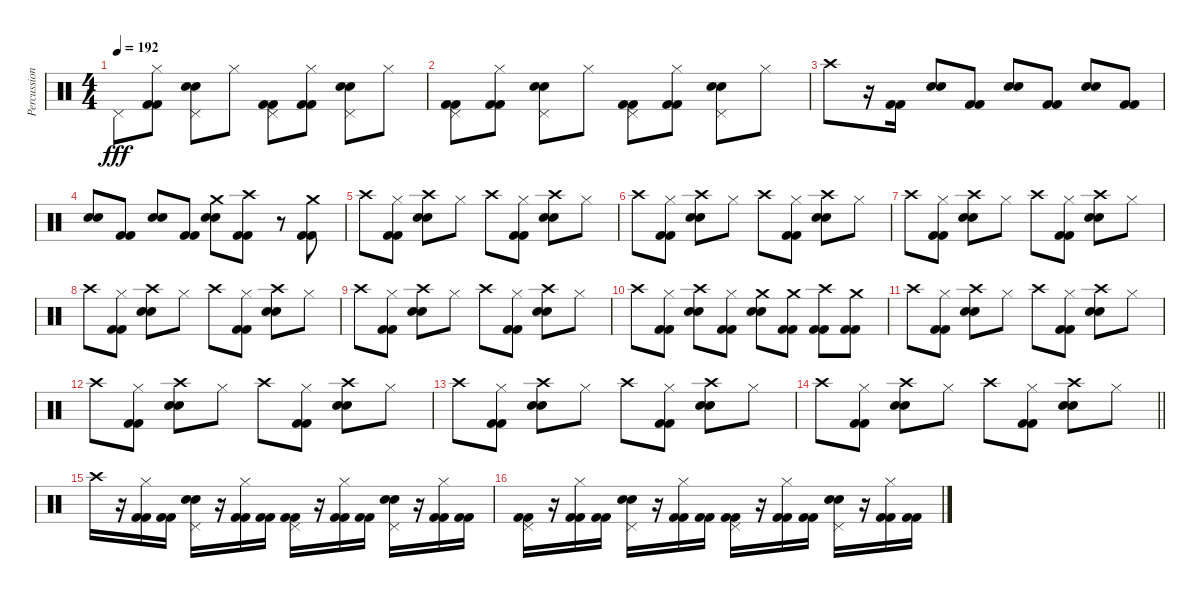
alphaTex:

\track ("Percussion" "Percussion") {instrument percussion}
\staff {score}
\articulation defaults
\ts (4 4)
\tempo 192
\clef neutral
\ks c "Pedal Hi-Hat (hit)".8{dy fff}
("Hi-Hat (closed)" "Kick (hit) 2" "Kick (hit) 2").8 ("Pedal Hi-Hat (hit)" "Snare (hit) 2" "Electric Snare (hit)").8 "Hi-Hat (closed)".8 ("Pedal Hi-Hat (hit)" "Kick (hit) 2" "Kick (hit) 2").8 ("Hi-Hat (closed)" "Kick (hit) 2" "Kick (hit) 2").8 ("Pedal Hi-Hat (hit)" "Snare (hit) 2" "Electric Snare (hit)").8 "Hi-Hat (closed)".8 |
("Pedal Hi-Hat (hit)" "Kick (hit) 2" "Kick (hit) 2").8 ("Hi-Hat (closed)" "Kick (hit) 2" "Kick (hit) 2").8 ("Pedal Hi-Hat (hit)" "Snare (hit) 2" "Electric Snare (hit)").8 "Hi-Hat (closed)".8 ("Pedal Hi-Hat (hit)" "Kick (hit) 2" "Kick (hit) 2").8 ("Hi-Hat (closed)" "Kick (hit) 2" "Kick (hit) 2").8 ("Pedal Hi-Hat (hit)" "Snare (hit) 2" "Electric Snare (hit)").8 "Hi-Hat (closed)".8 |
"Crash high (hit)".8 r.16 ("Kick (hit) 2" "Kick (hit) 2").16 ("Snare (hit) 2" "Electric Snare (hit)").8 ("Kick (hit) 2" "Kick (hit) 2").8 ("Snare (hit) 2" "Electric Snare (hit)").8 ("Kick (hit) 2" "Kick (hit) 2").8 ("Snare (hit) 2" "Electric Snare (hit)").8 ("Kick (hit) 2" "Kick (hit) 2").8 |
("Snare (hit) 2" "Electric Snare (hit)").8 ("Kick (hit) 2" "Kick (hit) 2").8 ("Snare (hit) 2" "Electric Snare (hit)").8 ("Kick (hit) 2" "Kick (hit) 2").8 ("Crash medium (hit)" "Snare (hit) 2" "Electric Snare (hit)").8 ("Crash high (hit)" "Kick (hit) 2" "Kick (hit) 2").8 r.8 ("Crash medium (hit)" "Kick (hit) 2" "Kick (hit) 2").8 |
"Crash high (hit)".8 ("Hi-Hat (closed)" "Kick (hit) 2" "Kick (hit) 2").8 ("Crash high (hit)" "Snare (hit) 2" "Electric Snare (hit)").8 "Hi-Hat (closed)".8 "Crash high (hit)".8 ("Hi-Hat (closed)" "Kick (hit) 2" "Kick (hit) 2").8 ("Crash high (hit)" "Snare (hit) 2" "Electric Snare (hit)").8 "Hi-Hat (closed)".8 |
"Crash high (hit)".8 ("Hi-Hat (closed)" "Kick (hit) 2" "Kick (hit) 2").8 ("Crash high (hit)" "Snare (hit) 2" "Electric Snare (hit)").8 "Hi-Hat (closed)".8 "Crash high (hit)".8 ("Hi-Hat (closed)" "Kick (hit) 2" "Kick (hit) 2").8 ("Crash high (hit)" "Snare (hit) 2" "Electric Snare (hit)").8 "Hi-Hat (closed)".8 |
"Crash high (hit)".8 ("Hi-Hat (closed)" "Kick (hit) 2" "Kick (hit) 2").8 ("Crash high (hit)" "Snare (hit) 2" "Electric Snare (hit)").8 "Hi-Hat (closed)".8 "Crash high (hit)".8 ("Hi-Hat (closed)" "Kick (hit) 2" "Kick (hit) 2").8 ("Crash high (hit)" "Snare (hit) 2" "Electric Snare (hit)").8 "Hi-Hat (closed)".8 |
"Crash high (hit)".8 ("Hi-Hat (closed)" "Kick (hit) 2" "Kick (hit) 2").8 ("Crash high (hit)" "Snare (hit) 2" "Electric Snare (hit)").8 "Hi-Hat (closed)".8 "Crash high (hit)".8 ("Hi-Hat (closed)" "Kick (hit) 2" "Kick (hit) 2").8 ("Crash high (hit)" "Snare (hit) 2" "Electric Snare (hit)").8 "Hi-Hat (closed)".8 |
"Crash high (hit)".8 ("Hi-Hat (closed)" "Kick (hit) 2" "Kick (hit) 2").8 ("Crash high (hit)" "Snare (hit) 2" "Electric Snare (hit)").8 "Hi-Hat (closed)".8 "Crash high (hit)".8 ("Hi-Hat (closed)" "Kick (hit) 2" "Kick (hit) 2").8 ("Crash high (hit)" "Snare (hit) 2" "Electric Snare (hit)").8 "Hi-Hat (closed)".8 |
"Crash high (hit)".8 ("Hi-Hat (closed)" "Kick (hit) 2" "Kick (hit) 2").8 ("Crash high (hit)" "Snare (hit) 2" "Electric Snare (hit)").8 ("Hi-Hat (closed)" "Kick (hit) 2" "Kick (hit) 2").8 ("Crash medium (hit)" "Snare (hit) 2" "Electric Snare (hit)").8 ("Crash medium (hit)" "Kick (hit) 2" "Kick (hit) 2").8 ("Crash high (hit)" "Kick (hit) 2" "Kick (hit) 2").8 ("Crash medium (hit)" "Kick (hit) 2" "Kick (hit) 2").8 |
"Crash high (hit)".8 ("Hi-Hat (closed)" "Kick (hit) 2" "Kick (hit) 2").8 ("Crash high (hit)" "Snare (hit) 2" "Electric Snare (hit)").8 "Hi-Hat (closed)".8 "Crash high (hit)".8 ("Hi-Hat (closed)" "Kick (hit) 2" "Kick (hit) 2").8 ("Crash high (hit)" "Snare (hit) 2" "Electric Snare (hit)").8 "Hi-Hat (closed)".8 |
"Crash high (hit)".8 ("Hi-Hat (closed)" "Kick (hit) 2" "Kick (hit) 2").8 ("Crash high (hit)" "Snare (hit) 2" "Electric Snare (hit)").8 "Hi-Hat (closed)".8 "Crash high (hit)".8 ("Hi-Hat (closed)" "Kick (hit) 2" "Kick (hit) 2").8 ("Crash high (hit)" "Snare (hit) 2" "Electric Snare (hit)").8 "Hi-Hat (closed)".8 |
"Crash high (hit)".8 ("Hi-Hat (closed)" "Kick (hit) 2" "Kick (hit) 2").8 ("Crash high (hit)" "Snare (hit) 2" "Electric Snare (hit)").8 "Hi-Hat (closed)".8 "Crash high (hit)".8 ("Hi-Hat (closed)" "Kick (hit) 2" "Kick (hit) 2").8 ("Crash high (hit)" "Snare (hit) 2" "Electric Snare (hit)").8 "Hi-Hat (closed)".8 |
\barLineRight lightlight "Crash high (hit)".8
("Hi-Hat (closed)" "Kick (hit) 2" "Kick (hit) 2").8 ("Crash high (hit)" "Snare (hit) 2" "Electric Snare (hit)").8 "Hi-Hat (closed)".8 "Crash high (hit)".8 ("Hi-Hat (closed)" "Kick (hit) 2" "Kick (hit) 2").8 ("Crash high (hit)" "Snare (hit) 2" "Electric Snare (hit)").8 "Hi-Hat (closed)".8 |
"Crash high (hit)".16 r.16 ("Hi-Hat (closed)" "Kick (hit) 2" "Kick (hit) 2").16 ("Kick (hit) 2" "Kick (hit) 2").16 ("Pedal Hi-Hat (hit)" "Snare (hit) 2" "Electric Snare (hit)").16 r.16 ("Hi-Hat (closed)" "Kick (hit) 2" "Kick (hit) 2").16 ("Kick (hit) 2" "Kick (hit) 2").16 ("Pedal Hi-Hat (hit)" "Kick (hit) 2" "Kick (hit) 2").16 r.16 ("Hi-Hat (closed)" "Kick (hit) 2" "Kick (hit) 2").16 ("Kick (hit) 2" "Kick (hit) 2").16 ("Pedal Hi-Hat (hit)" "Snare (hit) 2" "Electric Snare (hit)").16 r.16 ("Hi-Hat (closed)" "Kick (hit) 2" "Kick (hit) 2").16 ("Kick (hit) 2" "Kick (hit) 2").16 |
("Pedal Hi-Hat (hit)" "Kick (hit) 2" "Kick (hit) 2").16 r.16 ("Hi-Hat (closed)" "Kick (hit) 2" "Kick (hit) 2").16 ("Kick (hit) 2" "Kick (hit) 2").16 ("Pedal Hi-Hat (hit)" "Snare (hit) 2" "Electric Snare (hit)").16 r.16 ("Hi-Hat (closed)" "Kick (hit) 2" "Kick (hit) 2").16 ("Kick (hit) 2" "Kick (hit) 2").16 ("Pedal Hi-Hat (hit)" "Kick (hit) 2" "Kick (hit) 2").16 r.16 ("Hi-Hat (closed)" "Kick (hit) 2" "Kick (hit) 2").16 ("Kick (hit) 2" "Kick (hit) 2").16 ("Pedal Hi-Hat (hit)" "Snare (hit) 2" "Electric Snare (hit)").16 r.16 ("Hi-Hat (closed)" "Kick (hit) 2" "Kick (hit) 2").16 ("Kick (hit) 2" "Kick (hit) 2").16
